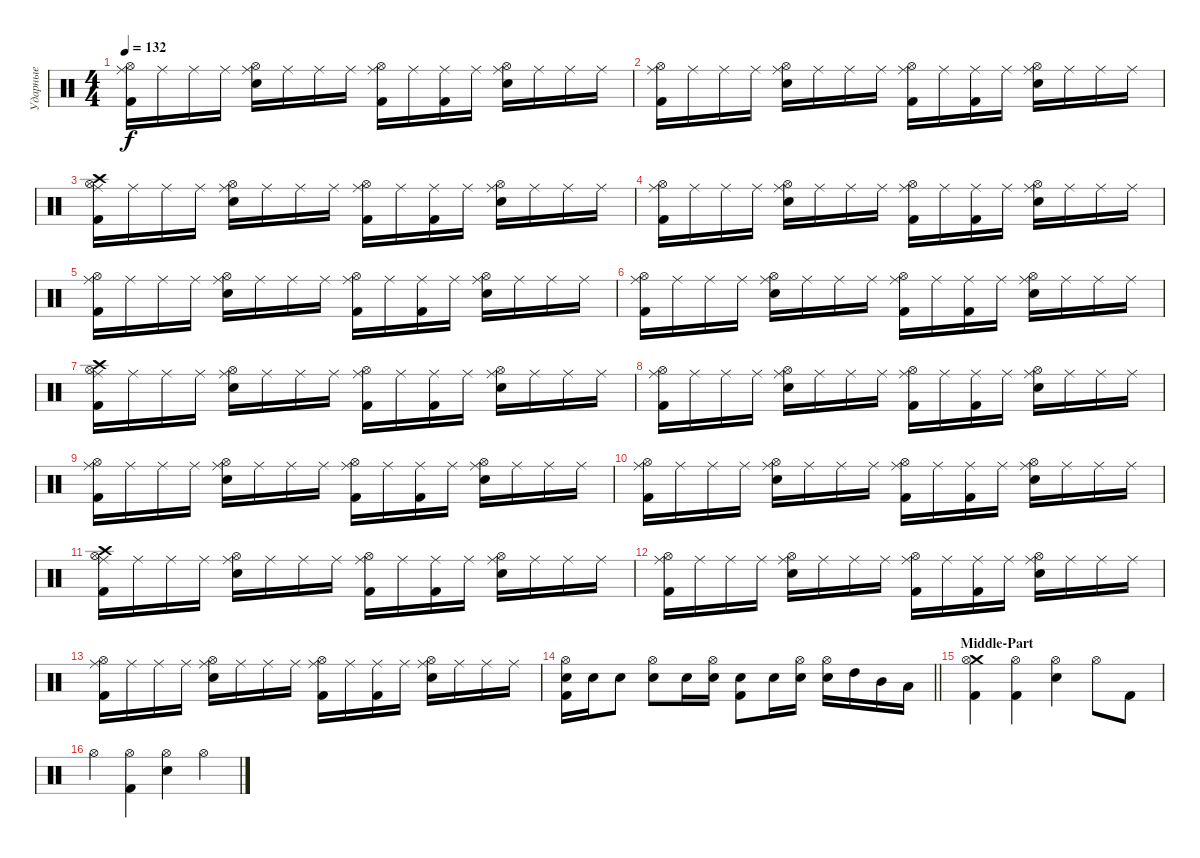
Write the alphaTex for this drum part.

\track ("Ударные" "Ударные") {instrument percussion}
\staff {score}
\articulation defaults
\ts (4 4)
\tempo 132
\clef neutral
\ks c
("Hi-Hat (open)" "Ride (middle)" "Kick (hit) 2").16{dy f} "Ride (middle)".16 "Ride (middle)".16 "Ride (middle)".16 ("Hi-Hat (open)" "Ride (middle)" "Snare (hit) 2").16 "Ride (middle)".16 "Ride (middle)".16 "Ride (middle)".16 ("Hi-Hat (open)" "Ride (middle)" "Kick (hit) 2").16 "Ride (middle)".16 ("Ride (middle)" "Kick (hit) 2").16 "Ride (middle)".16 ("Hi-Hat (open)" "Ride (middle)" "Snare (hit) 2").16 "Ride (middle)".16 "Ride (middle)".16 "Ride (middle)".16 |
("Hi-Hat (open)" "Ride (middle)" "Kick (hit) 2").16 "Ride (middle)".16 "Ride (middle)".16 "Ride (middle)".16 ("Hi-Hat (open)" "Ride (middle)" "Snare (hit) 2").16 "Ride (middle)".16 "Ride (middle)".16 "Ride (middle)".16 ("Hi-Hat (open)" "Ride (middle)" "Kick (hit) 2").16 "Ride (middle)".16 ("Ride (middle)" "Kick (hit) 2").16 "Ride (middle)".16 ("Hi-Hat (open)" "Ride (middle)" "Snare (hit) 2").16 "Ride (middle)".16 "Ride (middle)".16 "Ride (middle)".16 |
("Crash high (hit)" "Hi-Hat (open)" "Ride (middle)" "Kick (hit) 2").16 "Ride (middle)".16 "Ride (middle)".16 "Ride (middle)".16 ("Hi-Hat (open)" "Ride (middle)" "Snare (hit) 2").16 "Ride (middle)".16 "Ride (middle)".16 "Ride (middle)".16 ("Hi-Hat (open)" "Ride (middle)" "Kick (hit) 2").16 "Ride (middle)".16 ("Ride (middle)" "Kick (hit) 2").16 "Ride (middle)".16 ("Hi-Hat (open)" "Ride (middle)" "Snare (hit) 2").16 "Ride (middle)".16 "Ride (middle)".16 "Ride (middle)".16 |
("Hi-Hat (open)" "Ride (middle)" "Kick (hit) 2").16 "Ride (middle)".16 "Ride (middle)".16 "Ride (middle)".16 ("Hi-Hat (open)" "Ride (middle)" "Snare (hit) 2").16 "Ride (middle)".16 "Ride (middle)".16 "Ride (middle)".16 ("Hi-Hat (open)" "Ride (middle)" "Kick (hit) 2").16 "Ride (middle)".16 ("Ride (middle)" "Kick (hit) 2").16 "Ride (middle)".16 ("Hi-Hat (open)" "Ride (middle)" "Snare (hit) 2").16 "Ride (middle)".16 "Ride (middle)".16 "Ride (middle)".16 |
("Hi-Hat (open)" "Ride (middle)" "Kick (hit) 2").16 "Ride (middle)".16 "Ride (middle)".16 "Ride (middle)".16 ("Hi-Hat (open)" "Ride (middle)" "Snare (hit) 2").16 "Ride (middle)".16 "Ride (middle)".16 "Ride (middle)".16 ("Hi-Hat (open)" "Ride (middle)" "Kick (hit) 2").16 "Ride (middle)".16 ("Ride (middle)" "Kick (hit) 2").16 "Ride (middle)".16 ("Hi-Hat (open)" "Ride (middle)" "Snare (hit) 2").16 "Ride (middle)".16 "Ride (middle)".16 "Ride (middle)".16 |
("Hi-Hat (open)" "Ride (middle)" "Kick (hit) 2").16 "Ride (middle)".16 "Ride (middle)".16 "Ride (middle)".16 ("Hi-Hat (open)" "Ride (middle)" "Snare (hit) 2").16 "Ride (middle)".16 "Ride (middle)".16 "Ride (middle)".16 ("Hi-Hat (open)" "Ride (middle)" "Kick (hit) 2").16 "Ride (middle)".16 ("Ride (middle)" "Kick (hit) 2").16 "Ride (middle)".16 ("Hi-Hat (open)" "Ride (middle)" "Snare (hit) 2").16 "Ride (middle)".16 "Ride (middle)".16 "Ride (middle)".16 |
("Crash high (hit)" "Hi-Hat (open)" "Ride (middle)" "Kick (hit) 2").16 "Ride (middle)".16 "Ride (middle)".16 "Ride (middle)".16 ("Hi-Hat (open)" "Ride (middle)" "Snare (hit) 2").16 "Ride (middle)".16 "Ride (middle)".16 "Ride (middle)".16 ("Hi-Hat (open)" "Ride (middle)" "Kick (hit) 2").16 "Ride (middle)".16 ("Ride (middle)" "Kick (hit) 2").16 "Ride (middle)".16 ("Hi-Hat (open)" "Ride (middle)" "Snare (hit) 2").16 "Ride (middle)".16 "Ride (middle)".16 "Ride (middle)".16 |
("Hi-Hat (open)" "Ride (middle)" "Kick (hit) 2").16 "Ride (middle)".16 "Ride (middle)".16 "Ride (middle)".16 ("Hi-Hat (open)" "Ride (middle)" "Snare (hit) 2").16 "Ride (middle)".16 "Ride (middle)".16 "Ride (middle)".16 ("Hi-Hat (open)" "Ride (middle)" "Kick (hit) 2").16 "Ride (middle)".16 ("Ride (middle)" "Kick (hit) 2").16 "Ride (middle)".16 ("Hi-Hat (open)" "Ride (middle)" "Snare (hit) 2").16 "Ride (middle)".16 "Ride (middle)".16 "Ride (middle)".16 |
("Hi-Hat (open)" "Ride (middle)" "Kick (hit) 2").16 "Ride (middle)".16 "Ride (middle)".16 "Ride (middle)".16 ("Hi-Hat (open)" "Ride (middle)" "Snare (hit) 2").16 "Ride (middle)".16 "Ride (middle)".16 "Ride (middle)".16 ("Hi-Hat (open)" "Ride (middle)" "Kick (hit) 2").16 "Ride (middle)".16 ("Ride (middle)" "Kick (hit) 2").16 "Ride (middle)".16 ("Hi-Hat (open)" "Ride (middle)" "Snare (hit) 2").16 "Ride (middle)".16 "Ride (middle)".16 "Ride (middle)".16 |
("Hi-Hat (open)" "Ride (middle)" "Kick (hit) 2").16 "Ride (middle)".16 "Ride (middle)".16 "Ride (middle)".16 ("Hi-Hat (open)" "Ride (middle)" "Snare (hit) 2").16 "Ride (middle)".16 "Ride (middle)".16 "Ride (middle)".16 ("Hi-Hat (open)" "Ride (middle)" "Kick (hit) 2").16 "Ride (middle)".16 ("Ride (middle)" "Kick (hit) 2").16 "Ride (middle)".16 ("Hi-Hat (open)" "Ride (middle)" "Snare (hit) 2").16 "Ride (middle)".16 "Ride (middle)".16 "Ride (middle)".16 |
("Crash high (hit)" "Hi-Hat (open)" "Ride (middle)" "Kick (hit) 2").16 "Ride (middle)".16 "Ride (middle)".16 "Ride (middle)".16 ("Hi-Hat (open)" "Ride (middle)" "Snare (hit) 2").16 "Ride (middle)".16 "Ride (middle)".16 "Ride (middle)".16 ("Hi-Hat (open)" "Ride (middle)" "Kick (hit) 2").16 "Ride (middle)".16 ("Ride (middle)" "Kick (hit) 2").16 "Ride (middle)".16 ("Hi-Hat (open)" "Ride (middle)" "Snare (hit) 2").16 "Ride (middle)".16 "Ride (middle)".16 "Ride (middle)".16 |
("Hi-Hat (open)" "Ride (middle)" "Kick (hit) 2").16 "Ride (middle)".16 "Ride (middle)".16 "Ride (middle)".16 ("Hi-Hat (open)" "Ride (middle)" "Snare (hit) 2").16 "Ride (middle)".16 "Ride (middle)".16 "Ride (middle)".16 ("Hi-Hat (open)" "Ride (middle)" "Kick (hit) 2").16 "Ride (middle)".16 ("Ride (middle)" "Kick (hit) 2").16 "Ride (middle)".16 ("Hi-Hat (open)" "Ride (middle)" "Snare (hit) 2").16 "Ride (middle)".16 "Ride (middle)".16 "Ride (middle)".16 |
("Hi-Hat (open)" "Ride (middle)" "Kick (hit) 2").16 "Ride (middle)".16 "Ride (middle)".16 "Ride (middle)".16 ("Hi-Hat (open)" "Ride (middle)" "Snare (hit) 2").16 "Ride (middle)".16 "Ride (middle)".16 "Ride (middle)".16 ("Hi-Hat (open)" "Ride (middle)" "Kick (hit) 2").16 "Ride (middle)".16 ("Ride (middle)" "Kick (hit) 2").16 "Ride (middle)".16 ("Hi-Hat (open)" "Ride (middle)" "Snare (hit) 2").16 "Ride (middle)".16 "Ride (middle)".16 "Ride (middle)".16 |
\barLineRight lightlight
("Hi-Hat (open)" "Snare (hit) 2" "Kick (hit) 2").16 "Snare (hit) 2".16 "Snare (hit) 2".8 ("Hi-Hat (open)" "Snare (hit) 2").8 "Snare (hit) 2".16 ("Hi-Hat (open)" "Snare (hit) 2").16 ("Snare (hit) 2" "Kick (hit) 2").8 "Snare (hit) 2".16 ("Hi-Hat (open)" "Snare (hit) 2").16 ("Hi-Hat (open)" "Snare (hit) 2").16 "High Tom (hit)".16 "Mid Tom (hit)".16 "Low Tom (hit)".16 |
\section ("" "Middle-Part")
("Crash medium (hit)" "Hi-Hat (open)" "Kick (hit) 2").4 ("Hi-Hat (open)" "Kick (hit) 2").4 ("Hi-Hat (open)" "Snare (hit) 2").4 "Hi-Hat (open)".8 "Kick (hit) 2".8 |
"Hi-Hat (open)".4 ("Hi-Hat (open)" "Kick (hit) 2").4 ("Hi-Hat (open)" "Snare (hit) 2").4 "Hi-Hat (open)".4
